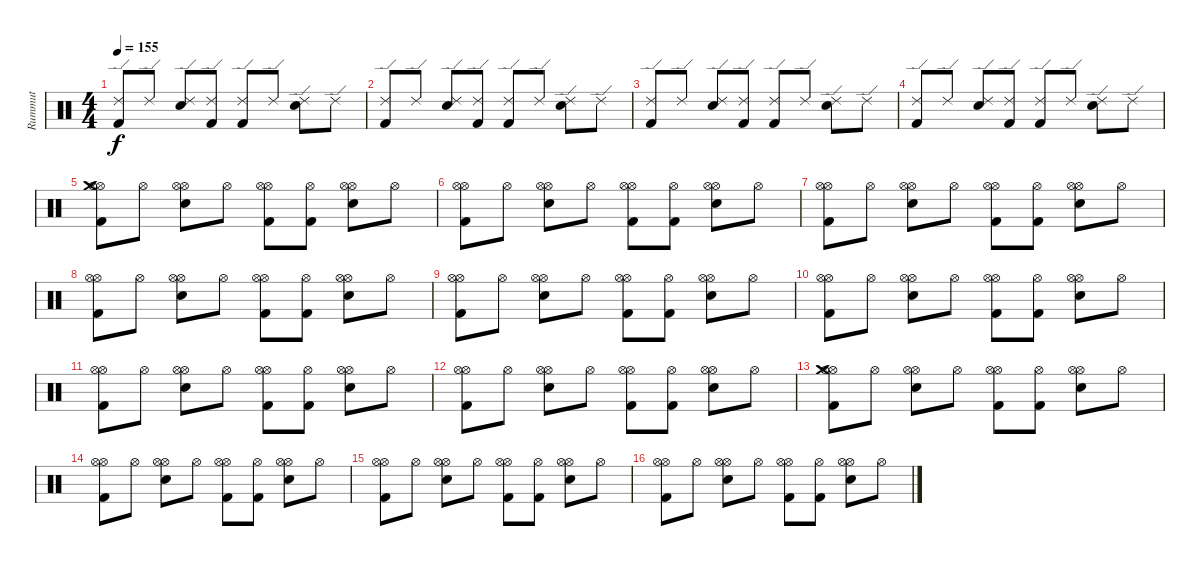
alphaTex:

\track ("Rummut" "Rummut") {instrument percussion}
\staff {score}
\articulation defaults
\ts (4 4)
\tempo 155
\clef neutral
\ks c
("Kick (hit) 2" "Ride (edge) 2").8{dy f} "Ride (edge) 2".8 ("Electric Snare (hit)" "Ride (edge) 2").8 ("Kick (hit) 2" "Ride (edge) 2").8 ("Kick (hit) 2" "Ride (edge) 2").8 "Ride (edge) 2".8 ("Electric Snare (hit)" "Ride (edge) 2").8 "Ride (edge) 2".8 |
("Kick (hit) 2" "Ride (edge) 2").8 "Ride (edge) 2".8 ("Electric Snare (hit)" "Ride (edge) 2").8 ("Kick (hit) 2" "Ride (edge) 2").8 ("Kick (hit) 2" "Ride (edge) 2").8 "Ride (edge) 2".8 ("Electric Snare (hit)" "Ride (edge) 2").8 "Ride (edge) 2".8 |
("Kick (hit) 2" "Ride (edge) 2").8 "Ride (edge) 2".8 ("Electric Snare (hit)" "Ride (edge) 2").8 ("Kick (hit) 2" "Ride (edge) 2").8 ("Kick (hit) 2" "Ride (edge) 2").8 "Ride (edge) 2".8 ("Electric Snare (hit)" "Ride (edge) 2").8 "Ride (edge) 2".8 |
("Kick (hit) 2" "Ride (edge) 2").8 "Ride (edge) 2".8 ("Electric Snare (hit)" "Ride (edge) 2").8 ("Kick (hit) 2" "Ride (edge) 2").8 ("Kick (hit) 2" "Ride (edge) 2").8 "Ride (edge) 2".8 ("Electric Snare (hit)" "Ride (edge) 2").8 "Ride (edge) 2".8 |
("Hi-Hat (open)" "Hi-Hat (open)" "Kick (hit) 2" "Crash medium (hit)").8 "Hi-Hat (open)".8 ("Hi-Hat (open)" "Hi-Hat (open)" "Electric Snare (hit)").8 "Hi-Hat (open)".8 ("Hi-Hat (open)" "Hi-Hat (open)" "Kick (hit) 2").8 ("Hi-Hat (open)" "Kick (hit) 2").8 ("Hi-Hat (open)" "Hi-Hat (open)" "Electric Snare (hit)").8 "Hi-Hat (open)".8 |
("Hi-Hat (open)" "Hi-Hat (open)" "Kick (hit) 2").8 "Hi-Hat (open)".8 ("Hi-Hat (open)" "Hi-Hat (open)" "Electric Snare (hit)").8 "Hi-Hat (open)".8 ("Hi-Hat (open)" "Hi-Hat (open)" "Kick (hit) 2").8 ("Hi-Hat (open)" "Kick (hit) 2").8 ("Hi-Hat (open)" "Hi-Hat (open)" "Electric Snare (hit)").8 "Hi-Hat (open)".8 |
("Hi-Hat (open)" "Hi-Hat (open)" "Kick (hit) 2").8 "Hi-Hat (open)".8 ("Hi-Hat (open)" "Hi-Hat (open)" "Electric Snare (hit)").8 "Hi-Hat (open)".8 ("Hi-Hat (open)" "Hi-Hat (open)" "Kick (hit) 2").8 ("Hi-Hat (open)" "Kick (hit) 2").8 ("Hi-Hat (open)" "Hi-Hat (open)" "Electric Snare (hit)").8 "Hi-Hat (open)".8 |
("Hi-Hat (open)" "Hi-Hat (open)" "Kick (hit) 2").8 "Hi-Hat (open)".8 ("Hi-Hat (open)" "Hi-Hat (open)" "Electric Snare (hit)").8 "Hi-Hat (open)".8 ("Hi-Hat (open)" "Hi-Hat (open)" "Kick (hit) 2").8 ("Hi-Hat (open)" "Kick (hit) 2").8 ("Hi-Hat (open)" "Hi-Hat (open)" "Electric Snare (hit)").8 "Hi-Hat (open)".8 |
("Hi-Hat (open)" "Hi-Hat (open)" "Kick (hit) 2").8 "Hi-Hat (open)".8 ("Hi-Hat (open)" "Hi-Hat (open)" "Electric Snare (hit)").8 "Hi-Hat (open)".8 ("Hi-Hat (open)" "Hi-Hat (open)" "Kick (hit) 2").8 ("Hi-Hat (open)" "Kick (hit) 2").8 ("Hi-Hat (open)" "Hi-Hat (open)" "Electric Snare (hit)").8 "Hi-Hat (open)".8 |
("Hi-Hat (open)" "Hi-Hat (open)" "Kick (hit) 2").8 "Hi-Hat (open)".8 ("Hi-Hat (open)" "Hi-Hat (open)" "Electric Snare (hit)").8 "Hi-Hat (open)".8 ("Hi-Hat (open)" "Hi-Hat (open)" "Kick (hit) 2").8 ("Hi-Hat (open)" "Kick (hit) 2").8 ("Hi-Hat (open)" "Hi-Hat (open)" "Electric Snare (hit)").8 "Hi-Hat (open)".8 |
("Hi-Hat (open)" "Hi-Hat (open)" "Kick (hit) 2").8 "Hi-Hat (open)".8 ("Hi-Hat (open)" "Hi-Hat (open)" "Electric Snare (hit)").8 "Hi-Hat (open)".8 ("Hi-Hat (open)" "Hi-Hat (open)" "Kick (hit) 2").8 ("Hi-Hat (open)" "Kick (hit) 2").8 ("Hi-Hat (open)" "Hi-Hat (open)" "Electric Snare (hit)").8 "Hi-Hat (open)".8 |
("Hi-Hat (open)" "Hi-Hat (open)" "Kick (hit) 2").8 "Hi-Hat (open)".8 ("Hi-Hat (open)" "Hi-Hat (open)" "Electric Snare (hit)").8 "Hi-Hat (open)".8 ("Hi-Hat (open)" "Hi-Hat (open)" "Kick (hit) 2").8 ("Hi-Hat (open)" "Kick (hit) 2").8 ("Hi-Hat (open)" "Hi-Hat (open)" "Electric Snare (hit)").8 "Hi-Hat (open)".8 |
("Hi-Hat (open)" "Hi-Hat (open)" "Kick (hit) 2" "Crash medium (hit)").8 "Hi-Hat (open)".8 ("Hi-Hat (open)" "Hi-Hat (open)" "Electric Snare (hit)").8 "Hi-Hat (open)".8 ("Hi-Hat (open)" "Hi-Hat (open)" "Kick (hit) 2").8 ("Hi-Hat (open)" "Kick (hit) 2").8 ("Hi-Hat (open)" "Hi-Hat (open)" "Electric Snare (hit)").8 "Hi-Hat (open)".8 |
("Hi-Hat (open)" "Hi-Hat (open)" "Kick (hit) 2").8 "Hi-Hat (open)".8 ("Hi-Hat (open)" "Hi-Hat (open)" "Electric Snare (hit)").8 "Hi-Hat (open)".8 ("Hi-Hat (open)" "Hi-Hat (open)" "Kick (hit) 2").8 ("Hi-Hat (open)" "Kick (hit) 2").8 ("Hi-Hat (open)" "Hi-Hat (open)" "Electric Snare (hit)").8 "Hi-Hat (open)".8 |
("Hi-Hat (open)" "Hi-Hat (open)" "Kick (hit) 2").8 "Hi-Hat (open)".8 ("Hi-Hat (open)" "Hi-Hat (open)" "Electric Snare (hit)").8 "Hi-Hat (open)".8 ("Hi-Hat (open)" "Hi-Hat (open)" "Kick (hit) 2").8 ("Hi-Hat (open)" "Kick (hit) 2").8 ("Hi-Hat (open)" "Hi-Hat (open)" "Electric Snare (hit)").8 "Hi-Hat (open)".8 |
("Hi-Hat (open)" "Hi-Hat (open)" "Kick (hit) 2").8 "Hi-Hat (open)".8 ("Hi-Hat (open)" "Hi-Hat (open)" "Electric Snare (hit)").8 "Hi-Hat (open)".8 ("Hi-Hat (open)" "Hi-Hat (open)" "Kick (hit) 2").8 ("Hi-Hat (open)" "Kick (hit) 2").8 ("Hi-Hat (open)" "Hi-Hat (open)" "Electric Snare (hit)").8 "Hi-Hat (open)".8
